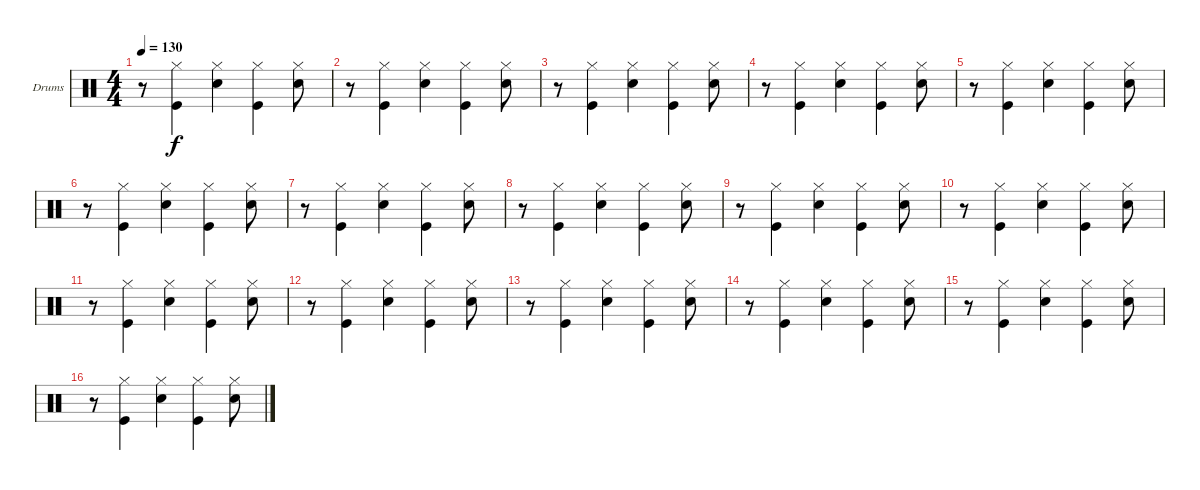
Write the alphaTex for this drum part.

\bracketExtendMode groupsimilarinstruments
\firstSystemTrackNameOrientation horizontal
\otherSystemsTrackNameOrientation horizontal
\track ("Drumkit" "Drums") {instrument percussion}
\staff {score}
\articulation defaults
\ts (4 4)
\tempo 130
\clef neutral
\ks c
r.8{dy f} ("Hi-Hat (closed)" "Kick (hit)").4 ("Hi-Hat (closed)" "Snare (hit) 2").4 ("Hi-Hat (closed)" "Kick (hit)").4 ("Hi-Hat (closed)" "Snare (hit) 2").8 |
r.8 ("Hi-Hat (closed)" "Kick (hit)").4 ("Hi-Hat (closed)" "Snare (hit) 2").4 ("Hi-Hat (closed)" "Kick (hit)").4 ("Hi-Hat (closed)" "Snare (hit) 2").8 |
r.8 ("Hi-Hat (closed)" "Kick (hit)").4 ("Hi-Hat (closed)" "Snare (hit) 2").4 ("Hi-Hat (closed)" "Kick (hit)").4 ("Hi-Hat (closed)" "Snare (hit) 2").8 |
r.8 ("Hi-Hat (closed)" "Kick (hit)").4 ("Hi-Hat (closed)" "Snare (hit) 2").4 ("Hi-Hat (closed)" "Kick (hit)").4 ("Hi-Hat (closed)" "Snare (hit) 2").8 |
r.8 ("Hi-Hat (closed)" "Kick (hit)").4 ("Hi-Hat (closed)" "Snare (hit) 2").4 ("Hi-Hat (closed)" "Kick (hit)").4 ("Hi-Hat (closed)" "Snare (hit) 2").8 |
r.8 ("Hi-Hat (closed)" "Kick (hit)").4 ("Hi-Hat (closed)" "Snare (hit) 2").4 ("Hi-Hat (closed)" "Kick (hit)").4 ("Hi-Hat (closed)" "Snare (hit) 2").8 |
r.8 ("Hi-Hat (closed)" "Kick (hit)").4 ("Hi-Hat (closed)" "Snare (hit) 2").4 ("Hi-Hat (closed)" "Kick (hit)").4 ("Hi-Hat (closed)" "Snare (hit) 2").8 |
r.8 ("Hi-Hat (closed)" "Kick (hit)").4 ("Hi-Hat (closed)" "Snare (hit) 2").4 ("Hi-Hat (closed)" "Kick (hit)").4 ("Hi-Hat (closed)" "Snare (hit) 2").8 |
r.8 ("Hi-Hat (closed)" "Kick (hit)").4 ("Hi-Hat (closed)" "Snare (hit) 2").4 ("Hi-Hat (closed)" "Kick (hit)").4 ("Hi-Hat (closed)" "Snare (hit) 2").8 |
r.8 ("Hi-Hat (closed)" "Kick (hit)").4 ("Hi-Hat (closed)" "Snare (hit) 2").4 ("Hi-Hat (closed)" "Kick (hit)").4 ("Hi-Hat (closed)" "Snare (hit) 2").8 |
r.8 ("Hi-Hat (closed)" "Kick (hit)").4 ("Hi-Hat (closed)" "Snare (hit) 2").4 ("Hi-Hat (closed)" "Kick (hit)").4 ("Hi-Hat (closed)" "Snare (hit) 2").8 |
r.8 ("Hi-Hat (closed)" "Kick (hit)").4 ("Hi-Hat (closed)" "Snare (hit) 2").4 ("Hi-Hat (closed)" "Kick (hit)").4 ("Hi-Hat (closed)" "Snare (hit) 2").8 |
r.8 ("Hi-Hat (closed)" "Kick (hit)").4 ("Hi-Hat (closed)" "Snare (hit) 2").4 ("Hi-Hat (closed)" "Kick (hit)").4 ("Hi-Hat (closed)" "Snare (hit) 2").8 |
r.8 ("Hi-Hat (closed)" "Kick (hit)").4 ("Hi-Hat (closed)" "Snare (hit) 2").4 ("Hi-Hat (closed)" "Kick (hit)").4 ("Hi-Hat (closed)" "Snare (hit) 2").8 |
r.8 ("Hi-Hat (closed)" "Kick (hit)").4 ("Hi-Hat (closed)" "Snare (hit) 2").4 ("Hi-Hat (closed)" "Kick (hit)").4 ("Hi-Hat (closed)" "Snare (hit) 2").8 |
r.8 ("Hi-Hat (closed)" "Kick (hit)").4 ("Hi-Hat (closed)" "Snare (hit) 2").4 ("Hi-Hat (closed)" "Kick (hit)").4 ("Hi-Hat (closed)" "Snare (hit) 2").8
